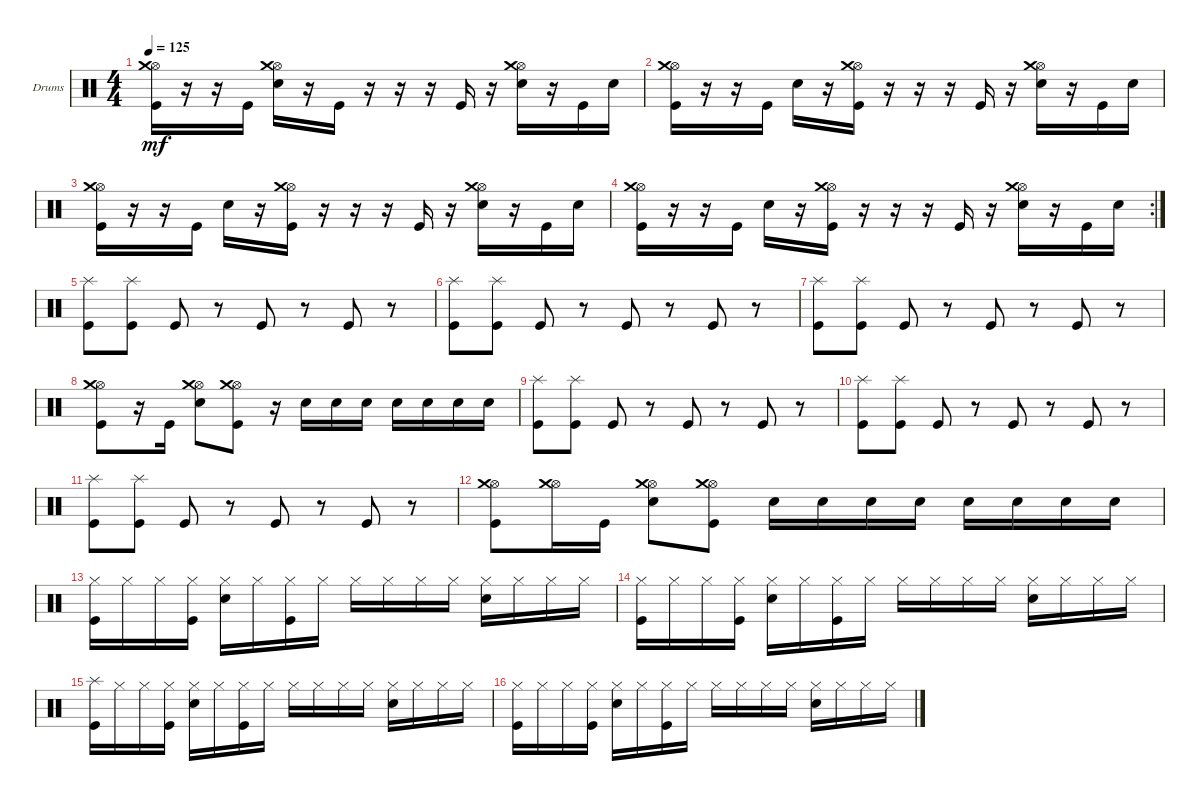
\defaultSystemsLayout 4
\bracketExtendMode groupsimilarinstruments
\firstSystemTrackNameOrientation horizontal
\otherSystemsTrackNameOrientation horizontal
\track ("Ударные" "Drums") {instrument percussion}
\staff {score}
\articulation defaults
\ts (4 4)
\tempo 125
\clef neutral
\ks c
("Kick (hit)" "Hi-Hat (open)" "Crash medium (hit)").16{dy mf} r.16 r.16 "Kick (hit)".16 ("Snare (hit) 2" "Hi-Hat (open)" "Crash medium (hit)").16 r.16 "Kick (hit)".16 r.16 r.16 r.16 "Kick (hit)".16 r.16 ("Snare (hit) 2" "Hi-Hat (open)" "Crash medium (hit)").16 r.16 "Kick (hit)".16 "Snare (hit) 2".16 |
("Kick (hit)" "Hi-Hat (open)" "Crash medium (hit)").16 r.16 r.16 "Kick (hit)".16 "Snare (hit) 2".16 r.16 ("Kick (hit)" "Hi-Hat (open)" "Crash medium (hit)").16 r.16 r.16 r.16 "Kick (hit)".16 r.16 ("Snare (hit) 2" "Hi-Hat (open)" "Crash medium (hit)").16 r.16 "Kick (hit)".16 "Snare (hit) 2".16 |
("Kick (hit)" "Hi-Hat (open)" "Crash medium (hit)").16 r.16 r.16 "Kick (hit)".16 "Snare (hit) 2".16 r.16 ("Kick (hit)" "Hi-Hat (open)" "Crash medium (hit)").16 r.16 r.16 r.16 "Kick (hit)".16 r.16 ("Snare (hit) 2" "Hi-Hat (open)" "Crash medium (hit)").16 r.16 "Kick (hit)".16 "Snare (hit) 2".16 |
\rc 2
("Kick (hit)" "Hi-Hat (open)" "Crash medium (hit)").16 r.16 r.16 "Kick (hit)".16 "Snare (hit) 2".16 r.16 ("Kick (hit)" "Hi-Hat (open)" "Crash medium (hit)").16 r.16 r.16 r.16 "Kick (hit)".16 r.16 ("Snare (hit) 2" "Hi-Hat (open)" "Crash medium (hit)").16 r.16 "Kick (hit)".16 "Snare (hit) 2".16 |
("Kick (hit)" "Splash (hit)").8 ("Kick (hit)" "Splash (hit)").8 "Kick (hit)".8 r.8 "Kick (hit)".8 r.8 "Kick (hit)".8 r.8 |
("Kick (hit)" "Splash (hit)").8 ("Kick (hit)" "Splash (hit)").8 "Kick (hit)".8 r.8 "Kick (hit)".8 r.8 "Kick (hit)".8 r.8 |
("Kick (hit)" "Splash (hit)").8 ("Kick (hit)" "Splash (hit)").8 "Kick (hit)".8 r.8 "Kick (hit)".8 r.8 "Kick (hit)".8 r.8 |
("Kick (hit)" "Hi-Hat (open)" "Crash medium (hit)").8 r.16 "Kick (hit)".16 ("Snare (hit) 2" "Hi-Hat (open)" "Crash medium (hit)").8 ("Hi-Hat (open)" "Kick (hit)" "Crash medium (hit)").8 r.16 "Snare (hit) 2".16 "Snare (hit) 2".16 "Snare (hit) 2".16 "Snare (hit) 2".16 "Snare (hit) 2".16 "Snare (hit) 2".16 "Snare (hit) 2".16 |
("Kick (hit)" "Splash (hit)").8 ("Kick (hit)" "Splash (hit)").8 "Kick (hit)".8 r.8 "Kick (hit)".8 r.8 "Kick (hit)".8 r.8 |
("Kick (hit)" "Splash (hit)").8 ("Kick (hit)" "Splash (hit)").8 "Kick (hit)".8 r.8 "Kick (hit)".8 r.8 "Kick (hit)".8 r.8 |
("Kick (hit)" "Splash (hit)").8 ("Kick (hit)" "Splash (hit)").8 "Kick (hit)".8 r.8 "Kick (hit)".8 r.8 "Kick (hit)".8 r.8 |
("Kick (hit)" "Hi-Hat (open)" "Crash medium (hit)").8 ("Hi-Hat (open)" "Crash medium (hit)").16 "Kick (hit)".16 ("Snare (hit) 2" "Hi-Hat (open)" "Crash medium (hit)").8 ("Hi-Hat (open)" "Kick (hit)" "Crash medium (hit)").8 "Snare (hit) 2".16 "Snare (hit) 2".16 "Snare (hit) 2".16 "Snare (hit) 2".16 "Snare (hit) 2".16 "Snare (hit) 2".16 "Snare (hit) 2".16 "Snare (hit) 2".16 |
("Kick (hit)" "Hi-Hat (closed)").16 "Hi-Hat (closed)".16 "Hi-Hat (closed)".16 ("Hi-Hat (closed)" "Kick (hit)").16 ("Hi-Hat (closed)" "Snare (hit) 2").16 "Hi-Hat (closed)".16 ("Hi-Hat (closed)" "Kick (hit)").16 "Hi-Hat (closed)".16 "Hi-Hat (closed)".16 "Hi-Hat (closed)".16 "Hi-Hat (closed)".16 "Hi-Hat (closed)".16 ("Hi-Hat (closed)" "Snare (hit) 2").16 "Hi-Hat (closed)".16 "Hi-Hat (closed)".16 "Hi-Hat (closed)".16 |
("Kick (hit)" "Hi-Hat (closed)").16 "Hi-Hat (closed)".16 "Hi-Hat (closed)".16 ("Hi-Hat (closed)" "Kick (hit)").16 ("Hi-Hat (closed)" "Snare (hit) 2").16 "Hi-Hat (closed)".16 ("Hi-Hat (closed)" "Kick (hit)").16 "Hi-Hat (closed)".16 "Hi-Hat (closed)".16 "Hi-Hat (closed)".16 "Hi-Hat (closed)".16 "Hi-Hat (closed)".16 ("Hi-Hat (closed)" "Snare (hit) 2").16 "Hi-Hat (closed)".16 "Hi-Hat (closed)".16 "Hi-Hat (closed)".16 |
("Splash (hit)" "Kick (hit)").16 "Hi-Hat (closed)".16 "Hi-Hat (closed)".16 ("Hi-Hat (closed)" "Kick (hit)").16 ("Hi-Hat (closed)" "Snare (hit) 2").16 "Hi-Hat (closed)".16 ("Hi-Hat (closed)" "Kick (hit)").16 "Hi-Hat (closed)".16 "Hi-Hat (closed)".16 "Hi-Hat (closed)".16 "Hi-Hat (closed)".16 "Hi-Hat (closed)".16 ("Hi-Hat (closed)" "Snare (hit) 2").16 "Hi-Hat (closed)".16 "Hi-Hat (closed)".16 "Hi-Hat (closed)".16 |
("Kick (hit)" "Hi-Hat (closed)").16 "Hi-Hat (closed)".16 "Hi-Hat (closed)".16 ("Hi-Hat (closed)" "Kick (hit)").16 ("Hi-Hat (closed)" "Snare (hit) 2").16 "Hi-Hat (closed)".16 ("Hi-Hat (closed)" "Kick (hit)").16 "Hi-Hat (closed)".16 "Hi-Hat (closed)".16 "Hi-Hat (closed)".16 "Hi-Hat (closed)".16 "Hi-Hat (closed)".16 ("Hi-Hat (closed)" "Snare (hit) 2").16 "Hi-Hat (closed)".16 "Hi-Hat (closed)".16 "Hi-Hat (closed)".16
